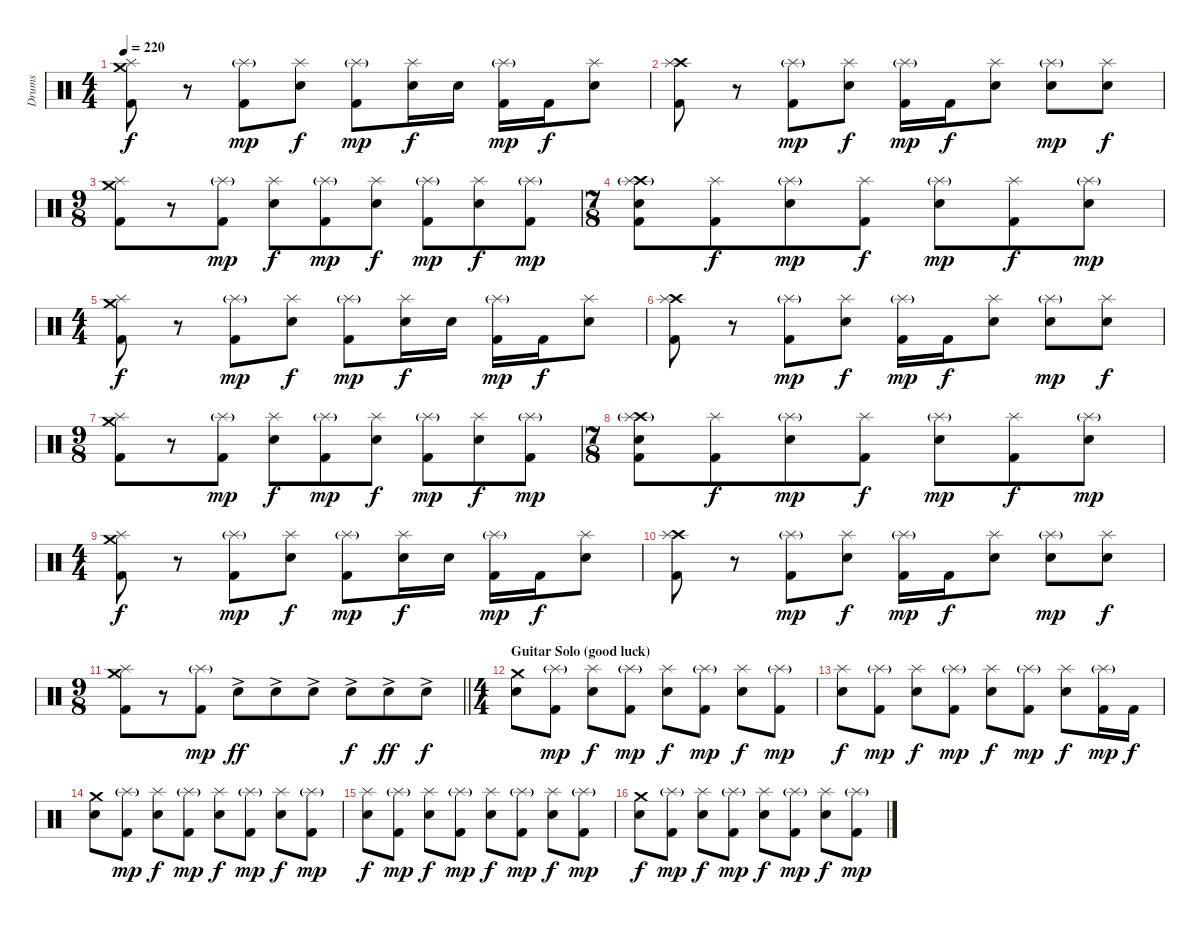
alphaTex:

\track ("Drums" "Drums") {instrument percussion}
\staff {score}
\articulation defaults
\ts (4 4)
\tempo 220
\clef neutral
\ks c
("Crash medium (hit)" "Splash (hit)" "Kick (hit) 2").8{dy f} r.8 ("Splash (hit)"{g} "Kick (hit) 2").8{dy mp} ("Splash (hit)" "Electric Snare (hit)").8{dy f} ("Splash (hit)"{g} "Kick (hit) 2").8{dy mp} ("Splash (hit)" "Electric Snare (hit)").16{dy f} "Electric Snare (hit)".16 ("Splash (hit)"{g} "Kick (hit) 2").16{dy mp} "Kick (hit) 2".16{dy f} ("Splash (hit)" "Electric Snare (hit)").8 |
("Crash high (hit)" "Splash (hit)" "Kick (hit) 2").8 r.8 ("Splash (hit)"{g} "Kick (hit) 2").8{dy mp} ("Splash (hit)" "Electric Snare (hit)").8{dy f} ("Splash (hit)"{g} "Kick (hit) 2").16{dy mp} "Kick (hit) 2".16{dy f} ("Splash (hit)" "Electric Snare (hit)").8 ("Splash (hit)"{g} "Electric Snare (hit)").8{dy mp} ("Splash (hit)" "Electric Snare (hit)").8{dy f} |
\ts (9 8)
("Crash medium (hit)" "Splash (hit)" "Kick (hit) 2").8 r.8 ("Splash (hit)"{g} "Kick (hit) 2").8{dy mp} ("Splash (hit)" "Electric Snare (hit)").8{dy f} ("Splash (hit)"{g} "Kick (hit) 2").8{dy mp} ("Splash (hit)" "Electric Snare (hit)").8{dy f} ("Splash (hit)"{g} "Kick (hit) 2").8{dy mp} ("Splash (hit)" "Electric Snare (hit)").8{dy f} ("Splash (hit)"{g} "Kick (hit) 2").8{dy mp} |
\ts (7 8)
("Crash high (hit)" "Splash (hit)"{g} "Electric Snare (hit)" "Kick (hit) 2").8 ("Splash (hit)" "Kick (hit) 2").8{dy f} ("Splash (hit)"{g} "Electric Snare (hit)").8{dy mp} ("Splash (hit)" "Kick (hit) 2").8{dy f} ("Splash (hit)"{g} "Electric Snare (hit)").8{dy mp} ("Splash (hit)" "Kick (hit) 2").8{dy f} ("Splash (hit)"{g} "Electric Snare (hit)").8{dy mp} |
\ts (4 4)
("Crash medium (hit)" "Splash (hit)" "Kick (hit) 2").8{dy f} r.8 ("Splash (hit)"{g} "Kick (hit) 2").8{dy mp} ("Splash (hit)" "Electric Snare (hit)").8{dy f} ("Splash (hit)"{g} "Kick (hit) 2").8{dy mp} ("Splash (hit)" "Electric Snare (hit)").16{dy f} "Electric Snare (hit)".16 ("Splash (hit)"{g} "Kick (hit) 2").16{dy mp} "Kick (hit) 2".16{dy f} ("Splash (hit)" "Electric Snare (hit)").8 |
("Crash high (hit)" "Splash (hit)" "Kick (hit) 2").8 r.8 ("Splash (hit)"{g} "Kick (hit) 2").8{dy mp} ("Splash (hit)" "Electric Snare (hit)").8{dy f} ("Splash (hit)"{g} "Kick (hit) 2").16{dy mp} "Kick (hit) 2".16{dy f} ("Splash (hit)" "Electric Snare (hit)").8 ("Splash (hit)"{g} "Electric Snare (hit)").8{dy mp} ("Splash (hit)" "Electric Snare (hit)").8{dy f} |
\ts (9 8)
("Crash medium (hit)" "Splash (hit)" "Kick (hit) 2").8 r.8 ("Splash (hit)"{g} "Kick (hit) 2").8{dy mp} ("Splash (hit)" "Electric Snare (hit)").8{dy f} ("Splash (hit)"{g} "Kick (hit) 2").8{dy mp} ("Splash (hit)" "Electric Snare (hit)").8{dy f} ("Splash (hit)"{g} "Kick (hit) 2").8{dy mp} ("Splash (hit)" "Electric Snare (hit)").8{dy f} ("Splash (hit)"{g} "Kick (hit) 2").8{dy mp} |
\ts (7 8)
("Crash high (hit)" "Splash (hit)"{g} "Electric Snare (hit)" "Kick (hit) 2").8 ("Splash (hit)" "Kick (hit) 2").8{dy f} ("Splash (hit)"{g} "Electric Snare (hit)").8{dy mp} ("Splash (hit)" "Kick (hit) 2").8{dy f} ("Splash (hit)"{g} "Electric Snare (hit)").8{dy mp} ("Splash (hit)" "Kick (hit) 2").8{dy f} ("Splash (hit)"{g} "Electric Snare (hit)").8{dy mp} |
\ts (4 4)
("Crash medium (hit)" "Splash (hit)" "Kick (hit) 2").8{dy f} r.8 ("Splash (hit)"{g} "Kick (hit) 2").8{dy mp} ("Splash (hit)" "Electric Snare (hit)").8{dy f} ("Splash (hit)"{g} "Kick (hit) 2").8{dy mp} ("Splash (hit)" "Electric Snare (hit)").16{dy f} "Electric Snare (hit)".16 ("Splash (hit)"{g} "Kick (hit) 2").16{dy mp} "Kick (hit) 2".16{dy f} ("Splash (hit)" "Electric Snare (hit)").8 |
("Crash high (hit)" "Splash (hit)" "Kick (hit) 2").8 r.8 ("Splash (hit)"{g} "Kick (hit) 2").8{dy mp} ("Splash (hit)" "Electric Snare (hit)").8{dy f} ("Splash (hit)"{g} "Kick (hit) 2").16{dy mp} "Kick (hit) 2".16{dy f} ("Splash (hit)" "Electric Snare (hit)").8 ("Splash (hit)"{g} "Electric Snare (hit)").8{dy mp} ("Splash (hit)" "Electric Snare (hit)").8{dy f} |
\ts (9 8)
\barLineRight lightlight
("Crash medium (hit)" "Splash (hit)" "Kick (hit) 2").8 r.8 ("Splash (hit)"{g} "Kick (hit) 2").8{dy mp} "Electric Snare (hit)"{ac}.8{dy ff} "Electric Snare (hit)"{ac}.8 "Electric Snare (hit)"{ac}.8 "Electric Snare (hit)"{ac}.8{dy f} "Electric Snare (hit)"{ac}.8{dy ff} "Electric Snare (hit)"{ac}.8{dy f} |
\ts (4 4)
\section ("" "Guitar Solo (good luck)")
("Crash medium (hit)" "Electric Snare (hit)").8 ("Splash (hit)"{g} "Kick (hit) 2").8{dy mp} ("Splash (hit)" "Electric Snare (hit)").8{dy f} ("Splash (hit)"{g} "Kick (hit) 2").8{dy mp} ("Splash (hit)" "Electric Snare (hit)").8{dy f} ("Splash (hit)"{g} "Kick (hit) 2").8{dy mp} ("Splash (hit)" "Electric Snare (hit)").8{dy f} ("Splash (hit)"{g} "Kick (hit) 2").8{dy mp} |
("Splash (hit)" "Electric Snare (hit)").8{dy f} ("Splash (hit)"{g} "Kick (hit) 2").8{dy mp} ("Splash (hit)" "Electric Snare (hit)").8{dy f} ("Splash (hit)"{g} "Kick (hit) 2").8{dy mp} ("Splash (hit)" "Electric Snare (hit)").8{dy f} ("Splash (hit)"{g} "Kick (hit) 2").8{dy mp} ("Splash (hit)" "Electric Snare (hit)").8{dy f} ("Splash (hit)"{g} "Kick (hit) 2").16{dy mp} "Kick (hit) 2".16{dy f} |
("Crash medium (hit)" "Electric Snare (hit)").8 ("Splash (hit)"{g} "Kick (hit) 2").8{dy mp} ("Splash (hit)" "Electric Snare (hit)").8{dy f} ("Splash (hit)"{g} "Kick (hit) 2").8{dy mp} ("Splash (hit)" "Electric Snare (hit)").8{dy f} ("Splash (hit)"{g} "Kick (hit) 2").8{dy mp} ("Splash (hit)" "Electric Snare (hit)").8{dy f} ("Splash (hit)"{g} "Kick (hit) 2").8{dy mp} |
("Splash (hit)" "Electric Snare (hit)").8{dy f} ("Splash (hit)"{g} "Kick (hit) 2").8{dy mp} ("Splash (hit)" "Electric Snare (hit)").8{dy f} ("Splash (hit)"{g} "Kick (hit) 2").8{dy mp} ("Splash (hit)" "Electric Snare (hit)").8{dy f} ("Splash (hit)"{g} "Kick (hit) 2").8{dy mp} ("Splash (hit)" "Electric Snare (hit)").8{dy f} ("Splash (hit)"{g} "Kick (hit) 2").8{dy mp} |
("Crash medium (hit)" "Electric Snare (hit)").8{dy f} ("Splash (hit)"{g} "Kick (hit) 2").8{dy mp} ("Splash (hit)" "Electric Snare (hit)").8{dy f} ("Splash (hit)"{g} "Kick (hit) 2").8{dy mp} ("Splash (hit)" "Electric Snare (hit)").8{dy f} ("Splash (hit)"{g} "Kick (hit) 2").8{dy mp} ("Splash (hit)" "Electric Snare (hit)").8{dy f} ("Splash (hit)"{g} "Kick (hit) 2").8{dy mp}
